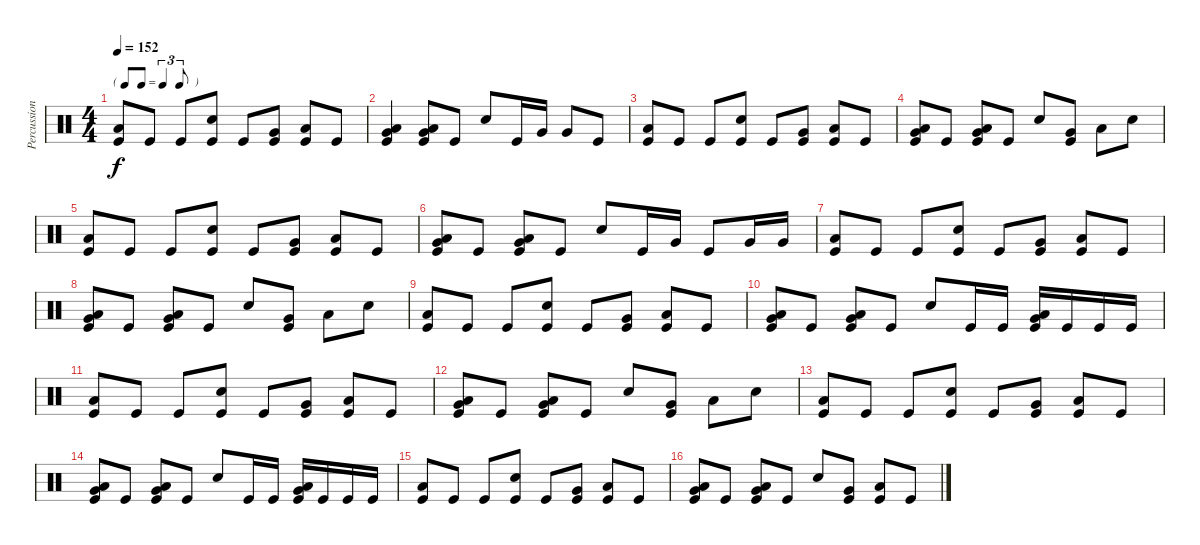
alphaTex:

\track ("Percussion" "Percussion") {instrument percussion}
\staff {score}
\articulation defaults
\ts (4 4)
\tf triplet8th
\tempo 152
\clef neutral
\ks c
("Kick (hit)" "Low Floor Tom (hit)").8{dy f} "Kick (hit)".8 "Kick (hit)".8 ("Snare (hit) 2" "Kick (hit)").8 "Kick (hit)".8 ("Very Low Tom (hit)" "Kick (hit)").8 ("Low Floor Tom (hit)" "Kick (hit)").8 "Kick (hit)".8 |
("Kick (hit)" "Low Floor Tom (hit)" "Very Low Tom (hit)").4 ("Kick (hit)" "Low Floor Tom (hit)" "Very Low Tom (hit)").8 "Kick (hit)".8 "Snare (hit) 2".8 "Kick (hit)".16 "Very Low Tom (hit)".16 "Very Low Tom (hit)".8 "Kick (hit)".8 |
("Kick (hit)" "Low Floor Tom (hit)").8 "Kick (hit)".8 "Kick (hit)".8 ("Snare (hit) 2" "Kick (hit)").8 "Kick (hit)".8 ("Very Low Tom (hit)" "Kick (hit)").8 ("Low Floor Tom (hit)" "Kick (hit)").8 "Kick (hit)".8 |
("Kick (hit)" "Low Floor Tom (hit)" "Very Low Tom (hit)").8 "Kick (hit)".8 ("Kick (hit)" "Low Floor Tom (hit)" "Very Low Tom (hit)").8 "Kick (hit)".8 "Snare (hit) 2".8 ("Very Low Tom (hit)" "Kick (hit)").8 "Low Floor Tom (hit)".8 "Snare (hit) 2".8 |
("Kick (hit)" "Low Floor Tom (hit)").8 "Kick (hit)".8 "Kick (hit)".8 ("Snare (hit) 2" "Kick (hit)").8 "Kick (hit)".8 ("Very Low Tom (hit)" "Kick (hit)").8 ("Low Floor Tom (hit)" "Kick (hit)").8 "Kick (hit)".8 |
("Kick (hit)" "Low Floor Tom (hit)" "Very Low Tom (hit)").8 "Kick (hit)".8 ("Kick (hit)" "Low Floor Tom (hit)" "Very Low Tom (hit)").8 "Kick (hit)".8 "Snare (hit) 2".8 "Kick (hit)".16 "Very Low Tom (hit)".16 "Kick (hit)".8 "Very Low Tom (hit)".16 "Very Low Tom (hit)".16 |
("Kick (hit)" "Low Floor Tom (hit)").8 "Kick (hit)".8 "Kick (hit)".8 ("Snare (hit) 2" "Kick (hit)").8 "Kick (hit)".8 ("Very Low Tom (hit)" "Kick (hit)").8 ("Low Floor Tom (hit)" "Kick (hit)").8 "Kick (hit)".8 |
("Kick (hit)" "Low Floor Tom (hit)" "Very Low Tom (hit)").8 "Kick (hit)".8 ("Kick (hit)" "Low Floor Tom (hit)" "Very Low Tom (hit)").8 "Kick (hit)".8 "Snare (hit) 2".8 ("Very Low Tom (hit)" "Kick (hit)").8 "Low Floor Tom (hit)".8 "Snare (hit) 2".8 |
("Kick (hit)" "Low Floor Tom (hit)").8 "Kick (hit)".8 "Kick (hit)".8 ("Snare (hit) 2" "Kick (hit)").8 "Kick (hit)".8 ("Very Low Tom (hit)" "Kick (hit)").8 ("Low Floor Tom (hit)" "Kick (hit)").8 "Kick (hit)".8 |
("Kick (hit)" "Low Floor Tom (hit)" "Very Low Tom (hit)").8 "Kick (hit)".8 ("Kick (hit)" "Low Floor Tom (hit)" "Very Low Tom (hit)").8 "Kick (hit)".8 "Snare (hit) 2".8 "Kick (hit)".16 "Kick (hit)".16 ("Very Low Tom (hit)" "Low Floor Tom (hit)" "Kick (hit)").16 "Kick (hit)".16 "Kick (hit)".16 "Kick (hit)".16 |
("Kick (hit)" "Low Floor Tom (hit)").8 "Kick (hit)".8 "Kick (hit)".8 ("Snare (hit) 2" "Kick (hit)").8 "Kick (hit)".8 ("Very Low Tom (hit)" "Kick (hit)").8 ("Low Floor Tom (hit)" "Kick (hit)").8 "Kick (hit)".8 |
("Kick (hit)" "Low Floor Tom (hit)" "Very Low Tom (hit)").8 "Kick (hit)".8 ("Kick (hit)" "Low Floor Tom (hit)" "Very Low Tom (hit)").8 "Kick (hit)".8 "Snare (hit) 2".8 ("Very Low Tom (hit)" "Kick (hit)").8 "Low Floor Tom (hit)".8 "Snare (hit) 2".8 |
("Kick (hit)" "Low Floor Tom (hit)").8 "Kick (hit)".8 "Kick (hit)".8 ("Snare (hit) 2" "Kick (hit)").8 "Kick (hit)".8 ("Very Low Tom (hit)" "Kick (hit)").8 ("Low Floor Tom (hit)" "Kick (hit)").8 "Kick (hit)".8 |
("Kick (hit)" "Low Floor Tom (hit)" "Very Low Tom (hit)").8 "Kick (hit)".8 ("Kick (hit)" "Low Floor Tom (hit)" "Very Low Tom (hit)").8 "Kick (hit)".8 "Snare (hit) 2".8 "Kick (hit)".16 "Kick (hit)".16 ("Very Low Tom (hit)" "Low Floor Tom (hit)" "Kick (hit)").16 "Kick (hit)".16 "Kick (hit)".16 "Kick (hit)".16 |
("Kick (hit)" "Low Floor Tom (hit)").8 "Kick (hit)".8 "Kick (hit)".8 ("Snare (hit) 2" "Kick (hit)").8 "Kick (hit)".8 ("Very Low Tom (hit)" "Kick (hit)").8 ("Low Floor Tom (hit)" "Kick (hit)").8 "Kick (hit)".8 |
("Kick (hit)" "Low Floor Tom (hit)" "Very Low Tom (hit)").8 "Kick (hit)".8 ("Kick (hit)" "Low Floor Tom (hit)" "Very Low Tom (hit)").8 "Kick (hit)".8 "Snare (hit) 2".8 ("Very Low Tom (hit)" "Kick (hit)").8 ("Kick (hit)" "Low Floor Tom (hit)").8 "Kick (hit)".8
